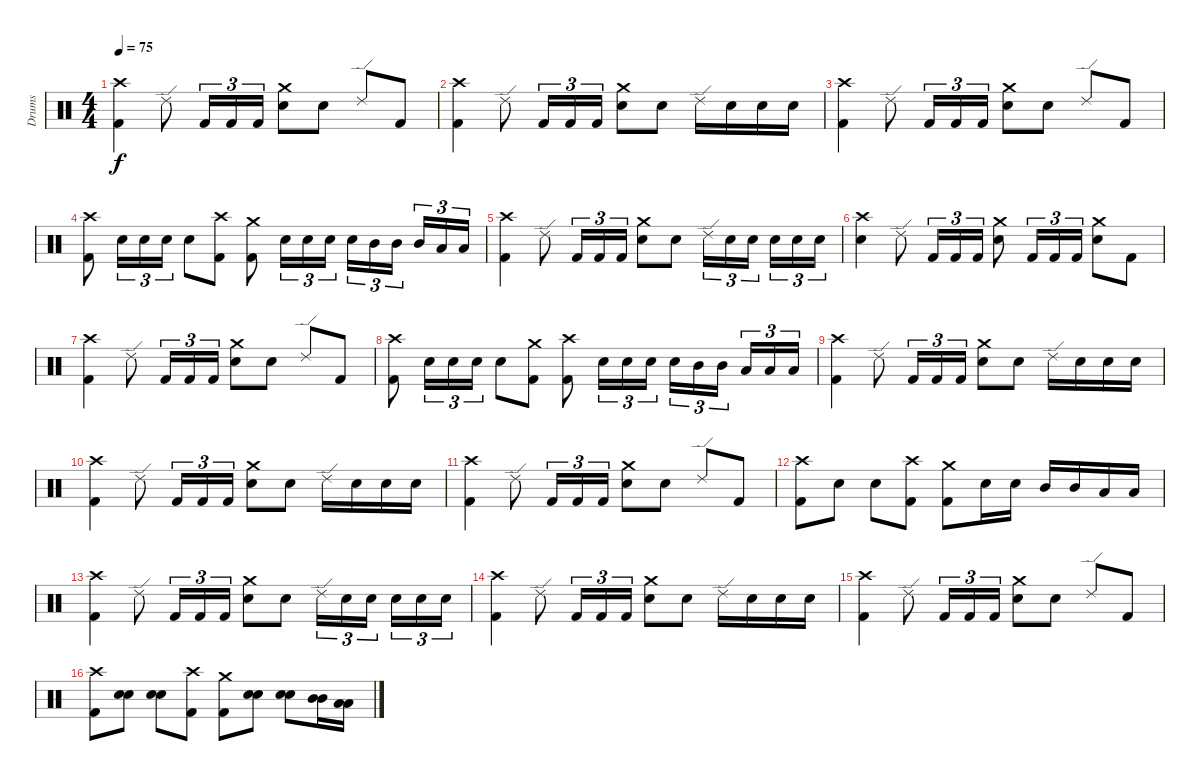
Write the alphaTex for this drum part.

\track ("Drums" "Drums") {instrument percussion}
\staff {score}
\articulation defaults
\ts (4 4)
\tempo 75
\clef neutral
\ks c
("Crash high (hit)" "Kick (hit) 2").4{dy f} "Ride (edge) 2".8 "Kick (hit) 2".16{tu (3 2)} "Kick (hit) 2".16{tu (3 2)} "Kick (hit) 2".16{tu (3 2)} ("Crash medium (hit)" "Electric Snare (hit)").8 "Electric Snare (hit)".8 "Ride (edge) 2".8 "Kick (hit) 2".8 |
("Crash high (hit)" "Kick (hit) 2").4 "Ride (edge) 2".8 "Kick (hit) 2".16{tu (3 2)} "Kick (hit) 2".16{tu (3 2)} "Kick (hit) 2".16{tu (3 2)} ("Crash medium (hit)" "Electric Snare (hit)").8 "Electric Snare (hit)".8 "Ride (edge) 2".16 "Electric Snare (hit)".16 "Electric Snare (hit)".16 "Electric Snare (hit)".16 |
("Crash high (hit)" "Kick (hit) 2").4 "Ride (edge) 2".8 "Kick (hit) 2".16{tu (3 2)} "Kick (hit) 2".16{tu (3 2)} "Kick (hit) 2".16{tu (3 2)} ("Crash medium (hit)" "Electric Snare (hit)").8 "Electric Snare (hit)".8 "Ride (edge) 2".8 "Kick (hit) 2".8 |
("Crash high (hit)" "Kick (hit) 2").8 "Electric Snare (hit)".16{tu (3 2)} "Electric Snare (hit)".16{tu (3 2)} "Electric Snare (hit)".16{tu (3 2)} "Electric Snare (hit)".8 ("Crash high (hit)" "Kick (hit) 2").8 ("Crash medium (hit)" "Kick (hit) 2").8 "Electric Snare (hit)".16{tu (3 2)} "Electric Snare (hit)".16{tu (3 2)} "Electric Snare (hit)".16{tu (3 2)} "Electric Snare (hit)".16{tu (3 2)} "Mid Tom (hit)".16{tu (3 2)} "Mid Tom (hit)".16{tu (3 2)} "Mid Tom (hit)".16{tu (3 2)} "Low Tom (hit)".16{tu (3 2)} "Low Tom (hit)".16{tu (3 2)} |
("Crash high (hit)" "Kick (hit) 2").4 "Ride (edge) 2".8 "Kick (hit) 2".16{tu (3 2)} "Kick (hit) 2".16{tu (3 2)} "Kick (hit) 2".16{tu (3 2)} ("Crash medium (hit)" "Electric Snare (hit)").8 "Electric Snare (hit)".8 "Ride (edge) 2".16{tu (3 2)} "Electric Snare (hit)".16{tu (3 2)} "Electric Snare (hit)".16{tu (3 2)} "Electric Snare (hit)".16{tu (3 2)} "Electric Snare (hit)".16{tu (3 2)} "Electric Snare (hit)".16{tu (3 2)} |
("Crash high (hit)" "Electric Snare (hit)").4 "Ride (edge) 2".8 "Kick (hit) 2".16{tu (3 2)} "Kick (hit) 2".16{tu (3 2)} "Kick (hit) 2".16{tu (3 2)} ("Crash medium (hit)" "Electric Snare (hit)").8 "Kick (hit) 2".16{tu (3 2)} "Kick (hit) 2".16{tu (3 2)} "Kick (hit) 2".16{tu (3 2)} ("Crash medium (hit)" "Electric Snare (hit)").8 "Kick (hit) 2".8 |
("Crash high (hit)" "Kick (hit) 2").4 "Ride (edge) 2".8 "Kick (hit) 2".16{tu (3 2)} "Kick (hit) 2".16{tu (3 2)} "Kick (hit) 2".16{tu (3 2)} ("Crash medium (hit)" "Electric Snare (hit)").8 "Electric Snare (hit)".8 "Ride (edge) 2".8 "Kick (hit) 2".8 |
("Crash high (hit)" "Kick (hit) 2").8 "Electric Snare (hit)".16{tu (3 2)} "Electric Snare (hit)".16{tu (3 2)} "Electric Snare (hit)".16{tu (3 2)} "Electric Snare (hit)".8 ("Crash medium (hit)" "Kick (hit) 2").8 ("Crash high (hit)" "Kick (hit) 2").8 "Electric Snare (hit)".16{tu (3 2)} "Electric Snare (hit)".16{tu (3 2)} "Electric Snare (hit)".16{tu (3 2)} "Electric Snare (hit)".16{tu (3 2)} "Mid Tom (hit)".16{tu (3 2)} "Mid Tom (hit)".16{tu (3 2)} "Low Tom (hit)".16{tu (3 2)} "Low Tom (hit)".16{tu (3 2)} "Low Tom (hit)".16{tu (3 2)} |
("Crash high (hit)" "Kick (hit) 2").4 "Ride (edge) 2".8 "Kick (hit) 2".16{tu (3 2)} "Kick (hit) 2".16{tu (3 2)} "Kick (hit) 2".16{tu (3 2)} ("Crash medium (hit)" "Electric Snare (hit)").8 "Electric Snare (hit)".8 "Ride (edge) 2".16 "Electric Snare (hit)".16 "Electric Snare (hit)".16 "Electric Snare (hit)".16 |
("Crash high (hit)" "Kick (hit) 2").4 "Ride (edge) 2".8 "Kick (hit) 2".16{tu (3 2)} "Kick (hit) 2".16{tu (3 2)} "Kick (hit) 2".16{tu (3 2)} ("Crash medium (hit)" "Electric Snare (hit)").8 "Electric Snare (hit)".8 "Ride (edge) 2".16 "Electric Snare (hit)".16 "Electric Snare (hit)".16 "Electric Snare (hit)".16 |
("Crash high (hit)" "Kick (hit) 2").4 "Ride (edge) 2".8 "Kick (hit) 2".16{tu (3 2)} "Kick (hit) 2".16{tu (3 2)} "Kick (hit) 2".16{tu (3 2)} ("Crash medium (hit)" "Electric Snare (hit)").8 "Electric Snare (hit)".8 "Ride (edge) 2".8 "Kick (hit) 2".8 |
("Crash high (hit)" "Kick (hit) 2").8 "Electric Snare (hit)".8 "Electric Snare (hit)".8 ("Crash high (hit)" "Kick (hit) 2").8 ("Crash medium (hit)" "Kick (hit) 2").8 "Electric Snare (hit)".16 "Electric Snare (hit)".16 "Mid Tom (hit)".16 "Mid Tom (hit)".16 "Low Tom (hit)".16 "Low Tom (hit)".16 |
("Crash high (hit)" "Kick (hit) 2").4 "Ride (edge) 2".8 "Kick (hit) 2".16{tu (3 2)} "Kick (hit) 2".16{tu (3 2)} "Kick (hit) 2".16{tu (3 2)} ("Crash medium (hit)" "Electric Snare (hit)").8 "Electric Snare (hit)".8 "Ride (edge) 2".16{tu (3 2)} "Electric Snare (hit)".16{tu (3 2)} "Electric Snare (hit)".16{tu (3 2)} "Electric Snare (hit)".16{tu (3 2)} "Electric Snare (hit)".16{tu (3 2)} "Electric Snare (hit)".16{tu (3 2)} |
("Crash high (hit)" "Kick (hit) 2").4 "Ride (edge) 2".8 "Kick (hit) 2".16{tu (3 2)} "Kick (hit) 2".16{tu (3 2)} "Kick (hit) 2".16{tu (3 2)} ("Crash medium (hit)" "Electric Snare (hit)").8 "Electric Snare (hit)".8 "Ride (edge) 2".16 "Electric Snare (hit)".16 "Electric Snare (hit)".16 "Electric Snare (hit)".16 |
("Crash high (hit)" "Kick (hit) 2").4 "Ride (edge) 2".8 "Kick (hit) 2".16{tu (3 2)} "Kick (hit) 2".16{tu (3 2)} "Kick (hit) 2".16{tu (3 2)} ("Crash medium (hit)" "Electric Snare (hit)").8 "Electric Snare (hit)".8 "Ride (edge) 2".8 "Kick (hit) 2".8 |
("Crash high (hit)" "Kick (hit) 2").8 ("Electric Snare (hit)" "Electric Snare (hit)").8{bu 60} ("Electric Snare (hit)" "Electric Snare (hit)").8{bu 60} ("Crash high (hit)" "Kick (hit) 2").8 ("Crash medium (hit)" "Kick (hit) 2").8 ("Electric Snare (hit)" "Electric Snare (hit)").8{bu 60} ("Electric Snare (hit)" "Electric Snare (hit)").8{bu 60} ("Mid Tom (hit)" "Mid Tom (hit)").16 ("Low Tom (hit)" "Low Tom (hit)").16
